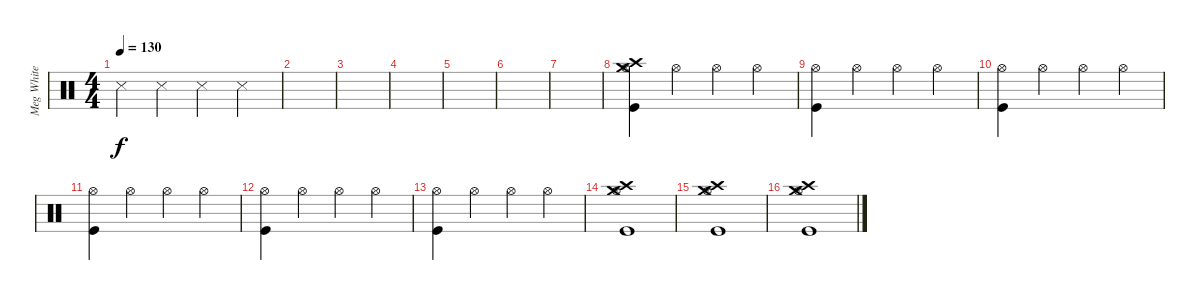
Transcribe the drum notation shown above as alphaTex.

\track ("Meg White" "Meg White") {instrument percussion}
\staff {score}
\articulation defaults
\ts (4 4)
\tempo 130
\clef neutral
\ks c "Metronome (hit)".4{dy f} "Metronome (hit)".4 "Metronome (hit)".4 "Metronome (hit)".4
|
|
|
|
|
|
|
("Hi-Hat (open)" "Crash medium (hit)" "Crash high (hit)" "Kick (hit)").4 "Hi-Hat (open)".4 "Hi-Hat (open)".4 "Hi-Hat (open)".4 |
("Hi-Hat (open)" "Kick (hit)").4 "Hi-Hat (open)".4 "Hi-Hat (open)".4 "Hi-Hat (open)".4 |
("Hi-Hat (open)" "Kick (hit)").4 "Hi-Hat (open)".4 "Hi-Hat (open)".4 "Hi-Hat (open)".4 |
("Hi-Hat (open)" "Kick (hit)").4 "Hi-Hat (open)".4 "Hi-Hat (open)".4 "Hi-Hat (open)".4 |
("Hi-Hat (open)" "Kick (hit)").4 "Hi-Hat (open)".4 "Hi-Hat (open)".4 "Hi-Hat (open)".4 |
("Hi-Hat (open)" "Kick (hit)").4 "Hi-Hat (open)".4 "Hi-Hat (open)".4 "Hi-Hat (open)".4 |
("Hi-Hat (open)" "Crash medium (hit)" "Crash high (hit)" "Kick (hit)").1 |
("Hi-Hat (open)" "Crash medium (hit)" "Crash high (hit)" "Kick (hit)").1 |
("Hi-Hat (open)" "Crash medium (hit)" "Crash high (hit)" "Kick (hit)").1
